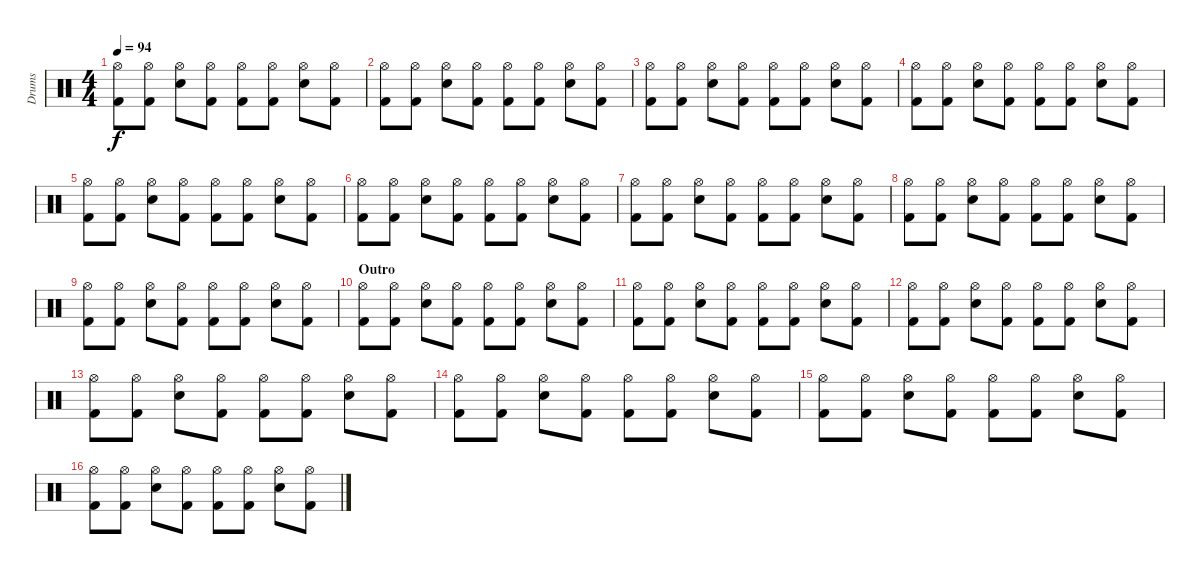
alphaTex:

\track ("Drums" "Drums") {instrument percussion}
\staff {score}
\articulation defaults
\ts (4 4)
\tempo 94
\clef neutral
\ks c
("Kick (hit) 2" "Hi-Hat (open)").8{dy f} ("Kick (hit) 2" "Hi-Hat (open)").8 ("Snare (hit) 2" "Hi-Hat (open)").8 ("Kick (hit) 2" "Hi-Hat (open)").8 ("Kick (hit) 2" "Hi-Hat (open)").8 ("Kick (hit) 2" "Hi-Hat (open)").8 ("Snare (hit) 2" "Hi-Hat (open)").8 ("Kick (hit) 2" "Hi-Hat (open)").8 |
("Kick (hit) 2" "Hi-Hat (open)").8 ("Kick (hit) 2" "Hi-Hat (open)").8 ("Snare (hit) 2" "Hi-Hat (open)").8 ("Kick (hit) 2" "Hi-Hat (open)").8 ("Kick (hit) 2" "Hi-Hat (open)").8 ("Kick (hit) 2" "Hi-Hat (open)").8 ("Snare (hit) 2" "Hi-Hat (open)").8 ("Kick (hit) 2" "Hi-Hat (open)").8 |
("Kick (hit) 2" "Hi-Hat (open)").8 ("Kick (hit) 2" "Hi-Hat (open)").8 ("Snare (hit) 2" "Hi-Hat (open)").8 ("Kick (hit) 2" "Hi-Hat (open)").8 ("Kick (hit) 2" "Hi-Hat (open)").8 ("Kick (hit) 2" "Hi-Hat (open)").8 ("Snare (hit) 2" "Hi-Hat (open)").8 ("Kick (hit) 2" "Hi-Hat (open)").8 |
("Kick (hit) 2" "Hi-Hat (open)").8 ("Kick (hit) 2" "Hi-Hat (open)").8 ("Snare (hit) 2" "Hi-Hat (open)").8 ("Kick (hit) 2" "Hi-Hat (open)").8 ("Kick (hit) 2" "Hi-Hat (open)").8 ("Kick (hit) 2" "Hi-Hat (open)").8 ("Snare (hit) 2" "Hi-Hat (open)").8 ("Kick (hit) 2" "Hi-Hat (open)").8 |
("Kick (hit) 2" "Hi-Hat (open)").8 ("Kick (hit) 2" "Hi-Hat (open)").8 ("Snare (hit) 2" "Hi-Hat (open)").8 ("Kick (hit) 2" "Hi-Hat (open)").8 ("Kick (hit) 2" "Hi-Hat (open)").8 ("Kick (hit) 2" "Hi-Hat (open)").8 ("Snare (hit) 2" "Hi-Hat (open)").8 ("Kick (hit) 2" "Hi-Hat (open)").8 |
("Kick (hit) 2" "Hi-Hat (open)").8 ("Kick (hit) 2" "Hi-Hat (open)").8 ("Snare (hit) 2" "Hi-Hat (open)").8 ("Kick (hit) 2" "Hi-Hat (open)").8 ("Kick (hit) 2" "Hi-Hat (open)").8 ("Kick (hit) 2" "Hi-Hat (open)").8 ("Snare (hit) 2" "Hi-Hat (open)").8 ("Kick (hit) 2" "Hi-Hat (open)").8 |
("Kick (hit) 2" "Hi-Hat (open)").8 ("Kick (hit) 2" "Hi-Hat (open)").8 ("Snare (hit) 2" "Hi-Hat (open)").8 ("Kick (hit) 2" "Hi-Hat (open)").8 ("Kick (hit) 2" "Hi-Hat (open)").8 ("Kick (hit) 2" "Hi-Hat (open)").8 ("Snare (hit) 2" "Hi-Hat (open)").8 ("Kick (hit) 2" "Hi-Hat (open)").8 |
("Kick (hit) 2" "Hi-Hat (open)").8 ("Kick (hit) 2" "Hi-Hat (open)").8 ("Snare (hit) 2" "Hi-Hat (open)").8 ("Kick (hit) 2" "Hi-Hat (open)").8 ("Kick (hit) 2" "Hi-Hat (open)").8 ("Kick (hit) 2" "Hi-Hat (open)").8 ("Snare (hit) 2" "Hi-Hat (open)").8 ("Kick (hit) 2" "Hi-Hat (open)").8 |
("Kick (hit) 2" "Hi-Hat (open)").8 ("Kick (hit) 2" "Hi-Hat (open)").8 ("Snare (hit) 2" "Hi-Hat (open)").8 ("Kick (hit) 2" "Hi-Hat (open)").8 ("Kick (hit) 2" "Hi-Hat (open)").8 ("Kick (hit) 2" "Hi-Hat (open)").8 ("Snare (hit) 2" "Hi-Hat (open)").8 ("Kick (hit) 2" "Hi-Hat (open)").8 |
\section ("" "Outro")
("Kick (hit) 2" "Hi-Hat (open)").8 ("Kick (hit) 2" "Hi-Hat (open)").8 ("Snare (hit) 2" "Hi-Hat (open)").8 ("Kick (hit) 2" "Hi-Hat (open)").8 ("Kick (hit) 2" "Hi-Hat (open)").8 ("Kick (hit) 2" "Hi-Hat (open)").8 ("Snare (hit) 2" "Hi-Hat (open)").8 ("Kick (hit) 2" "Hi-Hat (open)").8 |
("Kick (hit) 2" "Hi-Hat (open)").8 ("Kick (hit) 2" "Hi-Hat (open)").8 ("Snare (hit) 2" "Hi-Hat (open)").8 ("Kick (hit) 2" "Hi-Hat (open)").8 ("Kick (hit) 2" "Hi-Hat (open)").8 ("Kick (hit) 2" "Hi-Hat (open)").8 ("Snare (hit) 2" "Hi-Hat (open)").8 ("Kick (hit) 2" "Hi-Hat (open)").8 |
("Kick (hit) 2" "Hi-Hat (open)").8 ("Kick (hit) 2" "Hi-Hat (open)").8 ("Snare (hit) 2" "Hi-Hat (open)").8 ("Kick (hit) 2" "Hi-Hat (open)").8 ("Kick (hit) 2" "Hi-Hat (open)").8 ("Kick (hit) 2" "Hi-Hat (open)").8 ("Snare (hit) 2" "Hi-Hat (open)").8 ("Kick (hit) 2" "Hi-Hat (open)").8 |
("Kick (hit) 2" "Hi-Hat (open)").8 ("Kick (hit) 2" "Hi-Hat (open)").8 ("Snare (hit) 2" "Hi-Hat (open)").8 ("Kick (hit) 2" "Hi-Hat (open)").8 ("Kick (hit) 2" "Hi-Hat (open)").8 ("Kick (hit) 2" "Hi-Hat (open)").8 ("Snare (hit) 2" "Hi-Hat (open)").8 ("Kick (hit) 2" "Hi-Hat (open)").8 |
("Kick (hit) 2" "Hi-Hat (open)").8 ("Kick (hit) 2" "Hi-Hat (open)").8 ("Snare (hit) 2" "Hi-Hat (open)").8 ("Kick (hit) 2" "Hi-Hat (open)").8 ("Kick (hit) 2" "Hi-Hat (open)").8 ("Kick (hit) 2" "Hi-Hat (open)").8 ("Snare (hit) 2" "Hi-Hat (open)").8 ("Kick (hit) 2" "Hi-Hat (open)").8 |
("Kick (hit) 2" "Hi-Hat (open)").8 ("Kick (hit) 2" "Hi-Hat (open)").8 ("Snare (hit) 2" "Hi-Hat (open)").8 ("Kick (hit) 2" "Hi-Hat (open)").8 ("Kick (hit) 2" "Hi-Hat (open)").8 ("Kick (hit) 2" "Hi-Hat (open)").8 ("Snare (hit) 2" "Hi-Hat (open)").8 ("Kick (hit) 2" "Hi-Hat (open)").8 |
("Kick (hit) 2" "Hi-Hat (open)").8 ("Kick (hit) 2" "Hi-Hat (open)").8 ("Snare (hit) 2" "Hi-Hat (open)").8 ("Kick (hit) 2" "Hi-Hat (open)").8 ("Kick (hit) 2" "Hi-Hat (open)").8 ("Kick (hit) 2" "Hi-Hat (open)").8 ("Snare (hit) 2" "Hi-Hat (open)").8 ("Kick (hit) 2" "Hi-Hat (open)").8
